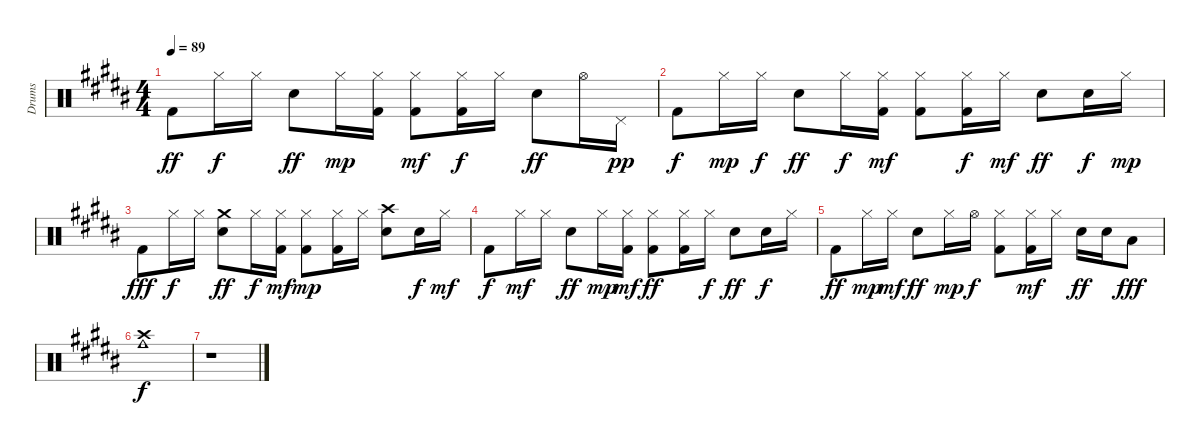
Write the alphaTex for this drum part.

\track ("Drums" "Drums") {instrument percussion}
\staff {score}
\articulation defaults
\ts (4 4)
\tempo 89
\clef neutral
\ks b "Kick (hit) 2".8{dy ff} "Hi-Hat (closed)".16{dy f} "Hi-Hat (closed)".16 "Electric Snare (hit)".8{dy ff} "Hi-Hat (closed)".16{dy mp}
("Kick (hit) 2" "Hi-Hat (closed)").16 ("Kick (hit) 2" "Hi-Hat (closed)").8{dy mf} ("Kick (hit) 2" "Hi-Hat (closed)").16{dy f} "Hi-Hat (closed)".16 "Electric Snare (hit)".8{dy ff} "Hi-Hat (open)".16 "Pedal Hi-Hat (hit)".16{dy pp} |
"Kick (hit) 2".8{dy f} "Hi-Hat (closed)".16{dy mp} "Hi-Hat (closed)".16{dy f} "Electric Snare (hit)".8{dy ff} "Hi-Hat (closed)".16{dy f} ("Kick (hit) 2" "Hi-Hat (closed)").16{dy mf} ("Kick (hit) 2" "Hi-Hat (closed)").8 ("Kick (hit) 2" "Hi-Hat (closed)").16{dy f} "Hi-Hat (closed)".16{dy mf} "Electric Snare (hit)".8{dy ff} "Hand Clap (hit)".16{dy f} "Hi-Hat (closed)".16{dy mp} |
"Kick (hit) 2".8{dy fff} "Hi-Hat (closed)".16{dy f} "Hi-Hat (closed)".16 ("Electric Snare (hit)" "Crash medium (hit)").8{dy ff} "Hi-Hat (closed)".16{dy f} ("Kick (hit) 2" "Hi-Hat (closed)").16{dy mf} ("Kick (hit) 2" "Hi-Hat (closed)").8{dy mp} ("Kick (hit) 2" "Hi-Hat (closed)").16 "Hi-Hat (closed)".16 ("Electric Snare (hit)" "Crash high (hit)").8 "Hand Clap (hit)".16{dy f} "Hi-Hat (closed)".16{dy mf} |
"Kick (hit) 2".8{dy f} "Hi-Hat (closed)".16{dy mf} "Hi-Hat (closed)".16 "Electric Snare (hit)".8{dy ff} "Hi-Hat (closed)".16{dy mp} ("Kick (hit) 2" "Hi-Hat (closed)").16{dy mf} ("Kick (hit) 2" "Hi-Hat (closed)").8{dy ff} ("Kick (hit) 2" "Hi-Hat (closed)").16 "Hi-Hat (closed)".16{dy f} "Electric Snare (hit)".8{dy ff} "Hand Clap (hit)".16{dy f} "Hi-Hat (closed)".16 |
"Kick (hit) 2".8{dy ff} "Hi-Hat (closed)".16{dy mp} "Hi-Hat (closed)".16{dy mf} "Electric Snare (hit)".8{dy ff} "Hi-Hat (closed)".16{dy mp} "Hi-Hat (open)".16{dy f} ("Kick (hit) 2" "Hi-Hat (closed)").8 ("Kick (hit) 2" "Hi-Hat (closed)").16{dy mf} "Hi-Hat (closed)".16 "Electric Snare (hit)".16{dy ff} "Electric Snare (hit)".16 "Low Tom (hit)".8{dy fff} |
("Crash high (hit)" "Cowbell medium (hit)").1{dy f} |
r.1
